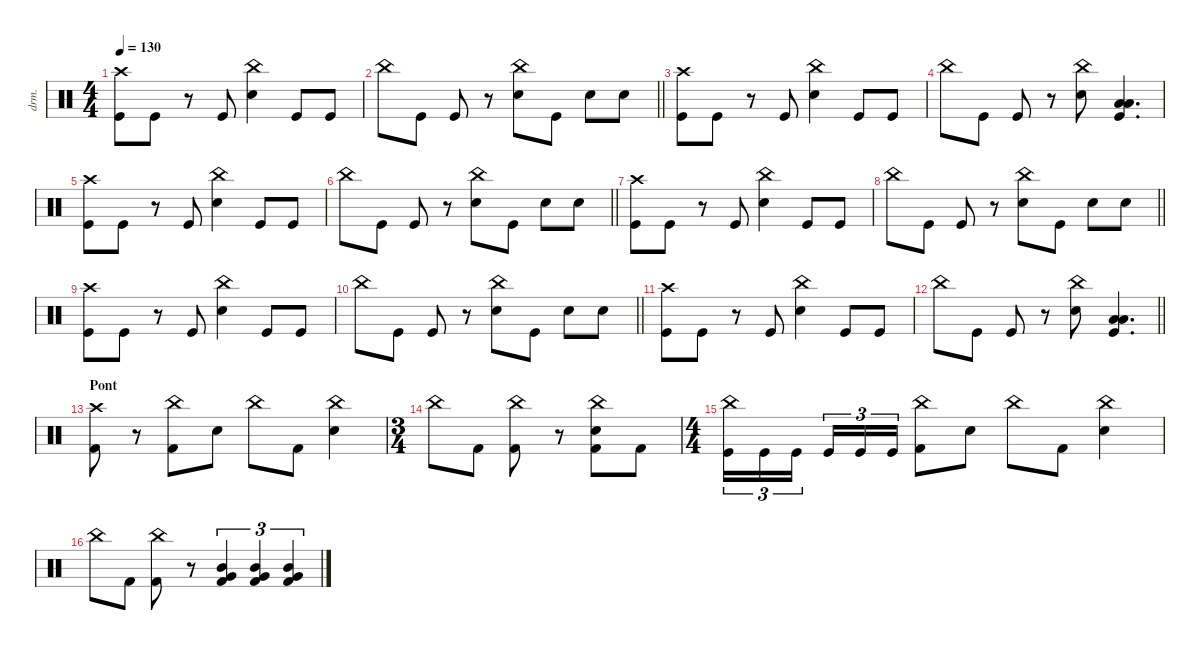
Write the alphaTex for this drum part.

\defaultSystemsLayout 4
\hideDynamics
\bracketExtendMode nobrackets
\otherSystemsTrackNameOrientation horizontal
\track ("Manouche" "drm.") {instrument percussion}
\staff {score}
\articulation defaults
\ts (4 4)
\tempo 130
\clef neutral
\ks c
("Crash high (hit)" "Kick (hit)").8{dy f} "Kick (hit)".8 r.8 "Kick (hit)".8 ("China (hit)" "Snare (hit) 2").4 "Kick (hit)".8 "Kick (hit)".8 |
\barLineRight lightlight "China (hit)".8 "Kick (hit)".8 "Kick (hit)".8
r.8 ("China (hit)" "Snare (hit) 2").8 "Kick (hit)".8 "Snare (hit) 2".8 "Snare (hit) 2".8 |
("Crash high (hit)" "Kick (hit)").8 "Kick (hit)".8 r.8 "Kick (hit)".8 ("China (hit)" "Snare (hit) 2").4 "Kick (hit)".8 "Kick (hit)".8 |
"China (hit)".8 "Kick (hit)".8 "Kick (hit)".8 r.8 ("China (hit)" "Snare (hit) 2").8 ("Low Tom (hit)" "Kick (hit)" "Low Floor Tom (hit)").4{d dy ff} |
("Crash high (hit)" "Kick (hit)").8{dy f} "Kick (hit)".8 r.8 "Kick (hit)".8 ("China (hit)" "Snare (hit) 2").4 "Kick (hit)".8 "Kick (hit)".8 |
\barLineRight lightlight "China (hit)".8 "Kick (hit)".8 "Kick (hit)".8
r.8 ("China (hit)" "Snare (hit) 2").8 "Kick (hit)".8 "Snare (hit) 2".8 "Snare (hit) 2".8 |
("Crash high (hit)" "Kick (hit)").8 "Kick (hit)".8 r.8 "Kick (hit)".8 ("China (hit)" "Snare (hit) 2").4 "Kick (hit)".8 "Kick (hit)".8 |
\barLineRight lightlight "China (hit)".8 "Kick (hit)".8 "Kick (hit)".8
r.8 ("China (hit)" "Snare (hit) 2").8 "Kick (hit)".8 "Snare (hit) 2".8 "Snare (hit) 2".8 |
("Crash high (hit)" "Kick (hit)").8 "Kick (hit)".8 r.8 "Kick (hit)".8 ("China (hit)" "Snare (hit) 2").4 "Kick (hit)".8 "Kick (hit)".8 |
\barLineRight lightlight "China (hit)".8 "Kick (hit)".8 "Kick (hit)".8
r.8 ("China (hit)" "Snare (hit) 2").8 "Kick (hit)".8 "Snare (hit) 2".8 "Snare (hit) 2".8 |
("Crash high (hit)" "Kick (hit)").8 "Kick (hit)".8 r.8 "Kick (hit)".8 ("China (hit)" "Snare (hit) 2").4 "Kick (hit)".8 "Kick (hit)".8 |
\barLineRight lightlight "China (hit)".8 "Kick (hit)".8 "Kick (hit)".8
r.8 ("China (hit)" "Snare (hit) 2").8 ("Low Tom (hit)" "Kick (hit)" "Low Floor Tom (hit)").4{d dy ff} |
\section ("" "Pont")
("Crash high (hit)" "Kick (hit) 2").8{dy f} r.8 ("China (hit)" "Kick (hit) 2").8 "Snare (hit) 2".8 "China (hit)".8 "Kick (hit) 2".8 ("China (hit)" "Snare (hit) 2").4 |
\ts (3 4)
\beaming (8 2 2 2)
"China (hit)".8 "Kick (hit) 2".8 ("China (hit)" "Kick (hit) 2").8 r.8 ("China (hit)" "Snare (hit) 2" "Kick (hit) 2").8 "Kick (hit) 2".8 |
\ts (4 4)
\beaming (8 2 2 2 2)
("Kick (hit)" "China (hit)").16{tu (3 2)} "Kick (hit)".16{tu (3 2)} "Kick (hit)".16{tu (3 2)} "Kick (hit)".16{tu (3 2)} "Kick (hit)".16{tu (3 2)} "Kick (hit)".16{tu (3 2)} ("China (hit)" "Kick (hit) 2").8 "Snare (hit) 2".8 "China (hit)".8 "Kick (hit) 2".8 ("China (hit)" "Snare (hit) 2").4 |
"China (hit)".8 "Kick (hit) 2".8 ("Kick (hit) 2" "China (hit)").8 r.8 ("Kick (hit) 2" "Mid Tom (hit)" "Very Low Tom (hit)").4{tu (3 2)} ("Kick (hit) 2" "Mid Tom (hit)" "Very Low Tom (hit)").4{tu (3 2)} ("Kick (hit) 2" "Mid Tom (hit)" "Very Low Tom (hit)").4{tu (3 2)}
